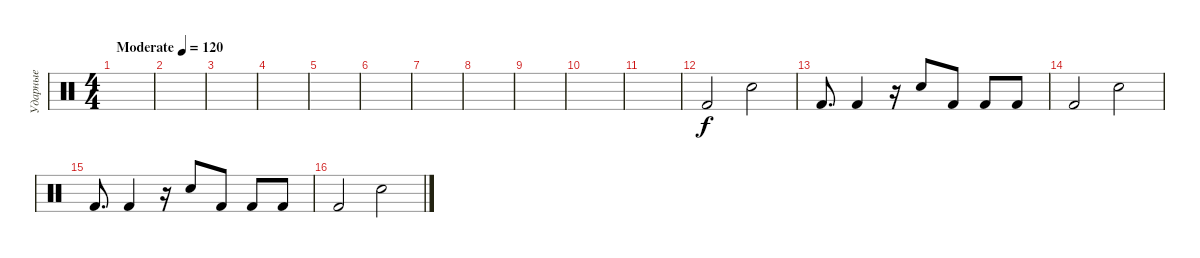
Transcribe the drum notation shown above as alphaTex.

\track ("Ударные" "Ударные") {instrument percussion}
\staff {score}
\articulation defaults
\ts (4 4)
\tempo (120 "Moderate")
\clef neutral
\ks c
|
|
|
|
|
|
|
|
|
|
|
"Kick (hit) 2".2 "Electric Snare (hit)".2 |
"Kick (hit) 2".8{d} "Kick (hit) 2".4 r.16 "Electric Snare (hit)".8 "Kick (hit) 2".8 "Kick (hit) 2".8 "Kick (hit) 2".8 |
"Kick (hit) 2".2 "Electric Snare (hit)".2 |
"Kick (hit) 2".8{d} "Kick (hit) 2".4 r.16 "Electric Snare (hit)".8 "Kick (hit) 2".8 "Kick (hit) 2".8 "Kick (hit) 2".8 |
"Kick (hit) 2".2 "Electric Snare (hit)".2
